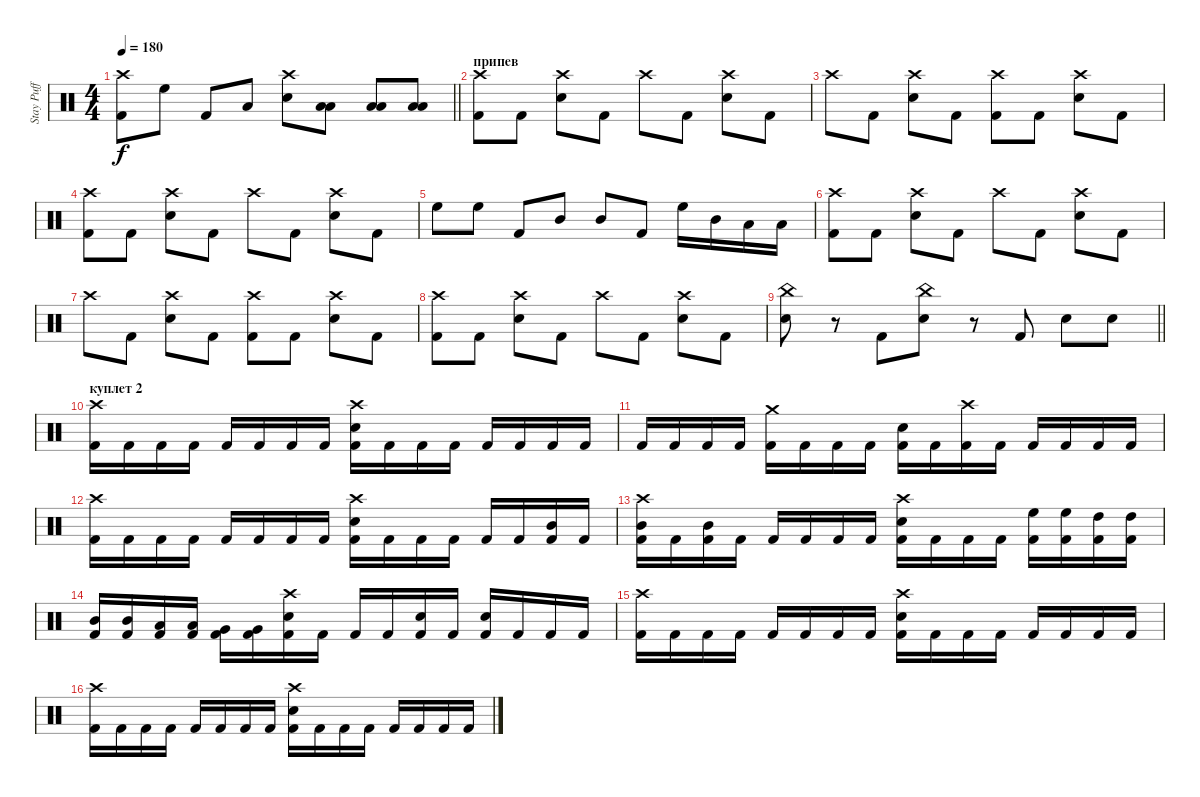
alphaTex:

\track ("Stay Puff" "Stay Puff") {instrument percussion}
\staff {score}
\articulation defaults
\ts (4 4)
\tempo 180
\clef neutral
\barLineRight lightlight
\ks c
("Crash high (hit)" "Kick (hit) 2").8{dy f} "High Floor Tom (hit)".8 "Kick (hit) 2".8 "Low Tom (hit)".8 ("Crash high (hit)" "Snare (hit) 2").8 ("Low Tom (hit)" "Low Floor Tom (hit)").8 ("Low Tom (hit)" "Low Floor Tom (hit)").8 ("Low Tom (hit)" "Low Floor Tom (hit)").8 |
\section ("" "припев")
("Crash high (hit)" "Kick (hit) 2").8 "Kick (hit) 2".8 ("Crash high (hit)" "Snare (hit) 2").8 "Kick (hit) 2".8 "Crash high (hit)".8 "Kick (hit) 2".8 ("Crash high (hit)" "Snare (hit) 2").8 "Kick (hit) 2".8 |
"Crash high (hit)".8 "Kick (hit) 2".8 ("Crash high (hit)" "Snare (hit) 2").8 "Kick (hit) 2".8 ("Crash high (hit)" "Kick (hit) 2").8 "Kick (hit) 2".8 ("Crash high (hit)" "Snare (hit) 2").8 "Kick (hit) 2".8 |
("Crash high (hit)" "Kick (hit) 2").8 "Kick (hit) 2".8 ("Crash high (hit)" "Snare (hit) 2").8 "Kick (hit) 2".8 "Crash high (hit)".8 "Kick (hit) 2".8 ("Crash high (hit)" "Snare (hit) 2").8 "Kick (hit) 2".8 |
"High Floor Tom (hit)".8 "High Floor Tom (hit)".8 "Kick (hit) 2".8 "Mid Tom (hit)".8 "Mid Tom (hit)".8 "Kick (hit) 2".8 "High Floor Tom (hit)".16 "Mid Tom (hit)".16 "Low Tom (hit)".16 "Low Floor Tom (hit)".16 |
("Crash high (hit)" "Kick (hit) 2").8 "Kick (hit) 2".8 ("Crash high (hit)" "Snare (hit) 2").8 "Kick (hit) 2".8 "Crash high (hit)".8 "Kick (hit) 2".8 ("Crash high (hit)" "Snare (hit) 2").8 "Kick (hit) 2".8 |
"Crash high (hit)".8 "Kick (hit) 2".8 ("Crash high (hit)" "Snare (hit) 2").8 "Kick (hit) 2".8 ("Crash high (hit)" "Kick (hit) 2").8 "Kick (hit) 2".8 ("Crash high (hit)" "Snare (hit) 2").8 "Kick (hit) 2".8 |
("Crash high (hit)" "Kick (hit) 2").8 "Kick (hit) 2".8 ("Crash high (hit)" "Snare (hit) 2").8 "Kick (hit) 2".8 "Crash high (hit)".8 "Kick (hit) 2".8 ("Crash high (hit)" "Snare (hit) 2").8 "Kick (hit) 2".8 |
\barLineRight lightlight
("China (hit)" "Snare (hit) 2").8 r.8 "Kick (hit) 2".8 ("China (hit)" "Snare (hit) 2").8 r.8 "Kick (hit) 2".8 "Snare (hit) 2".8 "Snare (hit) 2".8 |
\section ("" "куплет 2")
("Crash high (hit)" "Kick (hit) 2").16 "Kick (hit) 2".16 "Kick (hit) 2".16 "Kick (hit) 2".16 "Kick (hit) 2".16 "Kick (hit) 2".16 "Kick (hit) 2".16 "Kick (hit) 2".16 ("Crash high (hit)" "Snare (hit) 2" "Kick (hit) 2").16 "Kick (hit) 2".16 "Kick (hit) 2".16 "Kick (hit) 2".16 "Kick (hit) 2".16 "Kick (hit) 2".16 "Kick (hit) 2".16 "Kick (hit) 2".16 |
"Kick (hit) 2".16 "Kick (hit) 2".16 "Kick (hit) 2".16 "Kick (hit) 2".16 ("Crash medium (hit)" "Kick (hit) 2").16 "Kick (hit) 2".16 "Kick (hit) 2".16 "Kick (hit) 2".16 ("Snare (hit) 2" "Kick (hit) 2").16 "Kick (hit) 2".16 ("Crash high (hit)" "Kick (hit) 2").16 "Kick (hit) 2".16 "Kick (hit) 2".16 "Kick (hit) 2".16 "Kick (hit) 2".16 "Kick (hit) 2".16 |
("Crash high (hit)" "Kick (hit) 2").16 "Kick (hit) 2".16 "Kick (hit) 2".16 "Kick (hit) 2".16 "Kick (hit) 2".16 "Kick (hit) 2".16 "Kick (hit) 2".16 "Kick (hit) 2".16 ("Crash high (hit)" "Snare (hit) 2" "Kick (hit) 2").16 "Kick (hit) 2".16 "Kick (hit) 2".16 "Kick (hit) 2".16 "Kick (hit) 2".16 "Kick (hit) 2".16 ("Mid Tom (hit)" "Kick (hit) 2").16 "Kick (hit) 2".16 |
("Crash high (hit)" "Mid Tom (hit)" "Kick (hit) 2").16 "Kick (hit) 2".16 ("Mid Tom (hit)" "Kick (hit) 2").16 "Kick (hit) 2".16 "Kick (hit) 2".16 "Kick (hit) 2".16 "Kick (hit) 2".16 "Kick (hit) 2".16 ("Crash high (hit)" "Snare (hit) 2" "Kick (hit) 2").16 "Kick (hit) 2".16 "Kick (hit) 2".16 "Kick (hit) 2".16 ("High Floor Tom (hit)" "Kick (hit) 2").16 ("High Floor Tom (hit)" "Kick (hit) 2").16 ("High Tom (hit)" "Kick (hit) 2").16 ("High Tom (hit)" "Kick (hit) 2").16 |
("Mid Tom (hit)" "Kick (hit) 2").16 ("Mid Tom (hit)" "Kick (hit) 2").16 ("Low Tom (hit)" "Kick (hit) 2").16 ("Low Tom (hit)" "Kick (hit) 2").16 ("Very Low Tom (hit)" "Kick (hit) 2").16 ("Very Low Tom (hit)" "Kick (hit) 2").16 ("Crash high (hit)" "Snare (hit) 2" "Kick (hit) 2").16 "Kick (hit) 2".16 "Kick (hit) 2".16 "Kick (hit) 2".16 ("Snare (hit) 2" "Kick (hit) 2").16 "Kick (hit) 2".16 ("Snare (hit) 2" "Kick (hit) 2").16 "Kick (hit) 2".16 "Kick (hit) 2".16 "Kick (hit) 2".16 |
("Crash high (hit)" "Kick (hit) 2").16 "Kick (hit) 2".16 "Kick (hit) 2".16 "Kick (hit) 2".16 "Kick (hit) 2".16 "Kick (hit) 2".16 "Kick (hit) 2".16 "Kick (hit) 2".16 ("Crash high (hit)" "Snare (hit) 2" "Kick (hit) 2").16 "Kick (hit) 2".16 "Kick (hit) 2".16 "Kick (hit) 2".16 "Kick (hit) 2".16 "Kick (hit) 2".16 "Kick (hit) 2".16 "Kick (hit) 2".16 |
("Crash high (hit)" "Kick (hit) 2").16 "Kick (hit) 2".16 "Kick (hit) 2".16 "Kick (hit) 2".16 "Kick (hit) 2".16 "Kick (hit) 2".16 "Kick (hit) 2".16 "Kick (hit) 2".16 ("Crash high (hit)" "Snare (hit) 2" "Kick (hit) 2").16 "Kick (hit) 2".16 "Kick (hit) 2".16 "Kick (hit) 2".16 "Kick (hit) 2".16 "Kick (hit) 2".16 "Kick (hit) 2".16 "Kick (hit) 2".16
